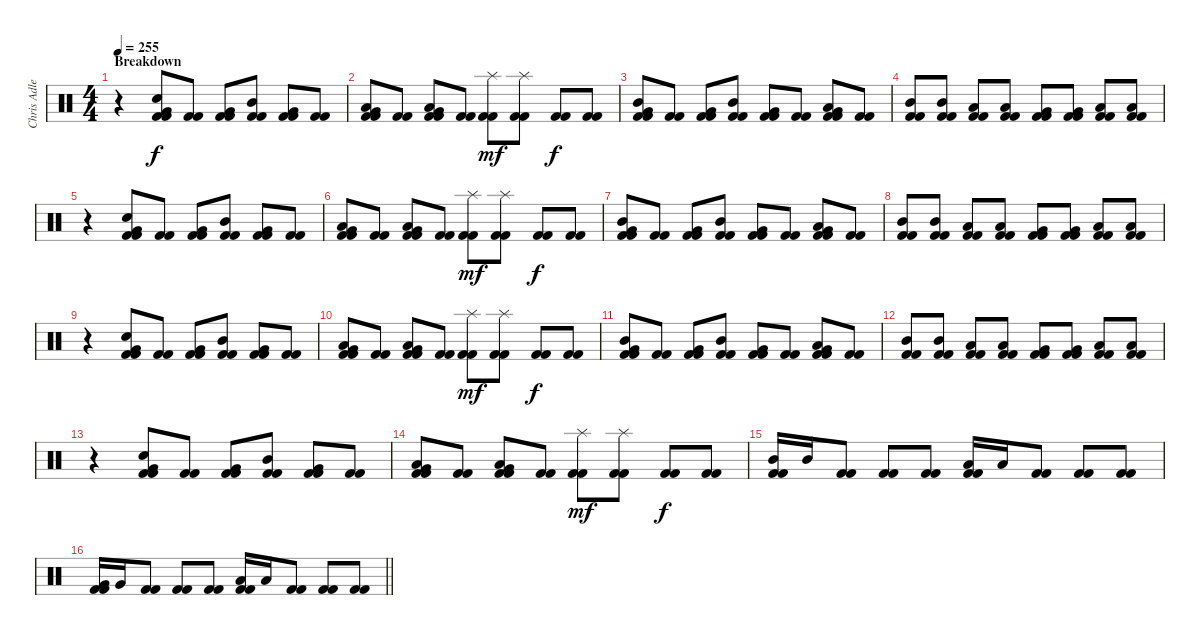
\track ("Chris Adler" "Chris Adle") {instrument percussion}
\staff {score}
\articulation defaults
\ts (4 4)
\section ("" "Breakdown")
\tempo 255
\clef neutral
\ks c
r.4{dy f} ("Very Low Tom (hit)" "Electric Snare (hit)" "Kick (hit) 2" "Kick (hit) 2").8 ("Kick (hit) 2" "Kick (hit) 2").8 ("Very Low Tom (hit)" "Kick (hit) 2" "Kick (hit) 2").8 ("Mid Tom (hit)" "Kick (hit) 2" "Kick (hit) 2").8 ("Very Low Tom (hit)" "Kick (hit) 2" "Kick (hit) 2").8 ("Kick (hit) 2" "Kick (hit) 2").8 |
("Low Tom (hit)" "Very Low Tom (hit)" "Kick (hit) 2" "Kick (hit) 2").8 ("Kick (hit) 2" "Kick (hit) 2").8 ("Low Tom (hit)" "Very Low Tom (hit)" "Kick (hit) 2" "Kick (hit) 2").8 ("Kick (hit) 2" "Kick (hit) 2").8 ("Splash (hit)" "Kick (hit) 2" "Kick (hit) 2").8{dy mf} ("Splash (hit)" "Kick (hit) 2" "Kick (hit) 2").8 ("Kick (hit) 2" "Kick (hit) 2").8{dy f} ("Kick (hit) 2" "Kick (hit) 2").8 |
("Mid Tom (hit)" "Very Low Tom (hit)" "Kick (hit) 2" "Kick (hit) 2").8 ("Kick (hit) 2" "Kick (hit) 2").8 ("Very Low Tom (hit)" "Kick (hit) 2" "Kick (hit) 2").8 ("Mid Tom (hit)" "Kick (hit) 2" "Kick (hit) 2").8 ("Very Low Tom (hit)" "Kick (hit) 2" "Kick (hit) 2").8 ("Kick (hit) 2" "Kick (hit) 2").8 ("Low Tom (hit)" "Very Low Tom (hit)" "Kick (hit) 2" "Kick (hit) 2").8 ("Kick (hit) 2" "Kick (hit) 2").8 |
("Mid Tom (hit)" "Kick (hit) 2" "Kick (hit) 2").8 ("Mid Tom (hit)" "Kick (hit) 2" "Kick (hit) 2").8 ("Low Tom (hit)" "Kick (hit) 2" "Kick (hit) 2").8 ("Low Tom (hit)" "Kick (hit) 2" "Kick (hit) 2").8 ("Very Low Tom (hit)" "Kick (hit) 2" "Kick (hit) 2").8 ("Very Low Tom (hit)" "Kick (hit) 2" "Kick (hit) 2").8 ("Low Floor Tom (hit)" "Kick (hit) 2" "Kick (hit) 2").8 ("Low Floor Tom (hit)" "Kick (hit) 2" "Kick (hit) 2").8 |
r.4 ("Very Low Tom (hit)" "Electric Snare (hit)" "Kick (hit) 2" "Kick (hit) 2").8 ("Kick (hit) 2" "Kick (hit) 2").8 ("Very Low Tom (hit)" "Kick (hit) 2" "Kick (hit) 2").8 ("Mid Tom (hit)" "Kick (hit) 2" "Kick (hit) 2").8 ("Very Low Tom (hit)" "Kick (hit) 2" "Kick (hit) 2").8 ("Kick (hit) 2" "Kick (hit) 2").8 |
("Low Tom (hit)" "Very Low Tom (hit)" "Kick (hit) 2" "Kick (hit) 2").8 ("Kick (hit) 2" "Kick (hit) 2").8 ("Low Tom (hit)" "Very Low Tom (hit)" "Kick (hit) 2" "Kick (hit) 2").8 ("Kick (hit) 2" "Kick (hit) 2").8 ("Splash (hit)" "Kick (hit) 2" "Kick (hit) 2").8{dy mf} ("Splash (hit)" "Kick (hit) 2" "Kick (hit) 2").8 ("Kick (hit) 2" "Kick (hit) 2").8{dy f} ("Kick (hit) 2" "Kick (hit) 2").8 |
("Mid Tom (hit)" "Very Low Tom (hit)" "Kick (hit) 2" "Kick (hit) 2").8 ("Kick (hit) 2" "Kick (hit) 2").8 ("Very Low Tom (hit)" "Kick (hit) 2" "Kick (hit) 2").8 ("Mid Tom (hit)" "Kick (hit) 2" "Kick (hit) 2").8 ("Very Low Tom (hit)" "Kick (hit) 2" "Kick (hit) 2").8 ("Kick (hit) 2" "Kick (hit) 2").8 ("Low Tom (hit)" "Very Low Tom (hit)" "Kick (hit) 2" "Kick (hit) 2").8 ("Kick (hit) 2" "Kick (hit) 2").8 |
("Mid Tom (hit)" "Kick (hit) 2" "Kick (hit) 2").8 ("Mid Tom (hit)" "Kick (hit) 2" "Kick (hit) 2").8 ("Low Tom (hit)" "Kick (hit) 2" "Kick (hit) 2").8 ("Low Tom (hit)" "Kick (hit) 2" "Kick (hit) 2").8 ("Very Low Tom (hit)" "Kick (hit) 2" "Kick (hit) 2").8 ("Very Low Tom (hit)" "Kick (hit) 2" "Kick (hit) 2").8 ("Low Floor Tom (hit)" "Kick (hit) 2" "Kick (hit) 2").8 ("Low Floor Tom (hit)" "Kick (hit) 2" "Kick (hit) 2").8 |
r.4 ("Very Low Tom (hit)" "Electric Snare (hit)" "Kick (hit) 2" "Kick (hit) 2").8 ("Kick (hit) 2" "Kick (hit) 2").8 ("Very Low Tom (hit)" "Kick (hit) 2" "Kick (hit) 2").8 ("Mid Tom (hit)" "Kick (hit) 2" "Kick (hit) 2").8 ("Very Low Tom (hit)" "Kick (hit) 2" "Kick (hit) 2").8 ("Kick (hit) 2" "Kick (hit) 2").8 |
("Low Tom (hit)" "Very Low Tom (hit)" "Kick (hit) 2" "Kick (hit) 2").8 ("Kick (hit) 2" "Kick (hit) 2").8 ("Low Tom (hit)" "Very Low Tom (hit)" "Kick (hit) 2" "Kick (hit) 2").8 ("Kick (hit) 2" "Kick (hit) 2").8 ("Splash (hit)" "Kick (hit) 2" "Kick (hit) 2").8{dy mf} ("Splash (hit)" "Kick (hit) 2" "Kick (hit) 2").8 ("Kick (hit) 2" "Kick (hit) 2").8{dy f} ("Kick (hit) 2" "Kick (hit) 2").8 |
("Mid Tom (hit)" "Very Low Tom (hit)" "Kick (hit) 2" "Kick (hit) 2").8 ("Kick (hit) 2" "Kick (hit) 2").8 ("Very Low Tom (hit)" "Kick (hit) 2" "Kick (hit) 2").8 ("Mid Tom (hit)" "Kick (hit) 2" "Kick (hit) 2").8 ("Very Low Tom (hit)" "Kick (hit) 2" "Kick (hit) 2").8 ("Kick (hit) 2" "Kick (hit) 2").8 ("Low Tom (hit)" "Very Low Tom (hit)" "Kick (hit) 2" "Kick (hit) 2").8 ("Kick (hit) 2" "Kick (hit) 2").8 |
("Mid Tom (hit)" "Kick (hit) 2" "Kick (hit) 2").8 ("Mid Tom (hit)" "Kick (hit) 2" "Kick (hit) 2").8 ("Low Tom (hit)" "Kick (hit) 2" "Kick (hit) 2").8 ("Low Tom (hit)" "Kick (hit) 2" "Kick (hit) 2").8 ("Very Low Tom (hit)" "Kick (hit) 2" "Kick (hit) 2").8 ("Very Low Tom (hit)" "Kick (hit) 2" "Kick (hit) 2").8 ("Low Floor Tom (hit)" "Kick (hit) 2" "Kick (hit) 2").8 ("Low Floor Tom (hit)" "Kick (hit) 2" "Kick (hit) 2").8 |
r.4 ("Very Low Tom (hit)" "Electric Snare (hit)" "Kick (hit) 2" "Kick (hit) 2").8 ("Kick (hit) 2" "Kick (hit) 2").8 ("Very Low Tom (hit)" "Kick (hit) 2" "Kick (hit) 2").8 ("Mid Tom (hit)" "Kick (hit) 2" "Kick (hit) 2").8 ("Very Low Tom (hit)" "Kick (hit) 2" "Kick (hit) 2").8 ("Kick (hit) 2" "Kick (hit) 2").8 |
("Low Tom (hit)" "Very Low Tom (hit)" "Kick (hit) 2" "Kick (hit) 2").8 ("Kick (hit) 2" "Kick (hit) 2").8 ("Low Tom (hit)" "Very Low Tom (hit)" "Kick (hit) 2" "Kick (hit) 2").8 ("Kick (hit) 2" "Kick (hit) 2").8 ("Splash (hit)" "Kick (hit) 2" "Kick (hit) 2").8{dy mf} ("Splash (hit)" "Kick (hit) 2" "Kick (hit) 2").8 ("Kick (hit) 2" "Kick (hit) 2").8{dy f} ("Kick (hit) 2" "Kick (hit) 2").8 |
("Mid Tom (hit)" "Kick (hit) 2" "Kick (hit) 2").16 "Mid Tom (hit)".16 ("Kick (hit) 2" "Kick (hit) 2").8 ("Kick (hit) 2" "Kick (hit) 2").8 ("Kick (hit) 2" "Kick (hit) 2").8 ("Low Tom (hit)" "Kick (hit) 2" "Kick (hit) 2").16 "Low Tom (hit)".16 ("Kick (hit) 2" "Kick (hit) 2").8 ("Kick (hit) 2" "Kick (hit) 2").8 ("Kick (hit) 2" "Kick (hit) 2").8 |
\barLineRight lightlight
("Very Low Tom (hit)" "Kick (hit) 2" "Kick (hit) 2").16 "Very Low Tom (hit)".16 ("Kick (hit) 2" "Kick (hit) 2").8 ("Kick (hit) 2" "Kick (hit) 2").8 ("Kick (hit) 2" "Kick (hit) 2").8 ("Low Floor Tom (hit)" "Kick (hit) 2" "Kick (hit) 2").16 "Low Floor Tom (hit)".16 ("Kick (hit) 2" "Kick (hit) 2").8 ("Kick (hit) 2" "Kick (hit) 2").8 ("Kick (hit) 2" "Kick (hit) 2").8
